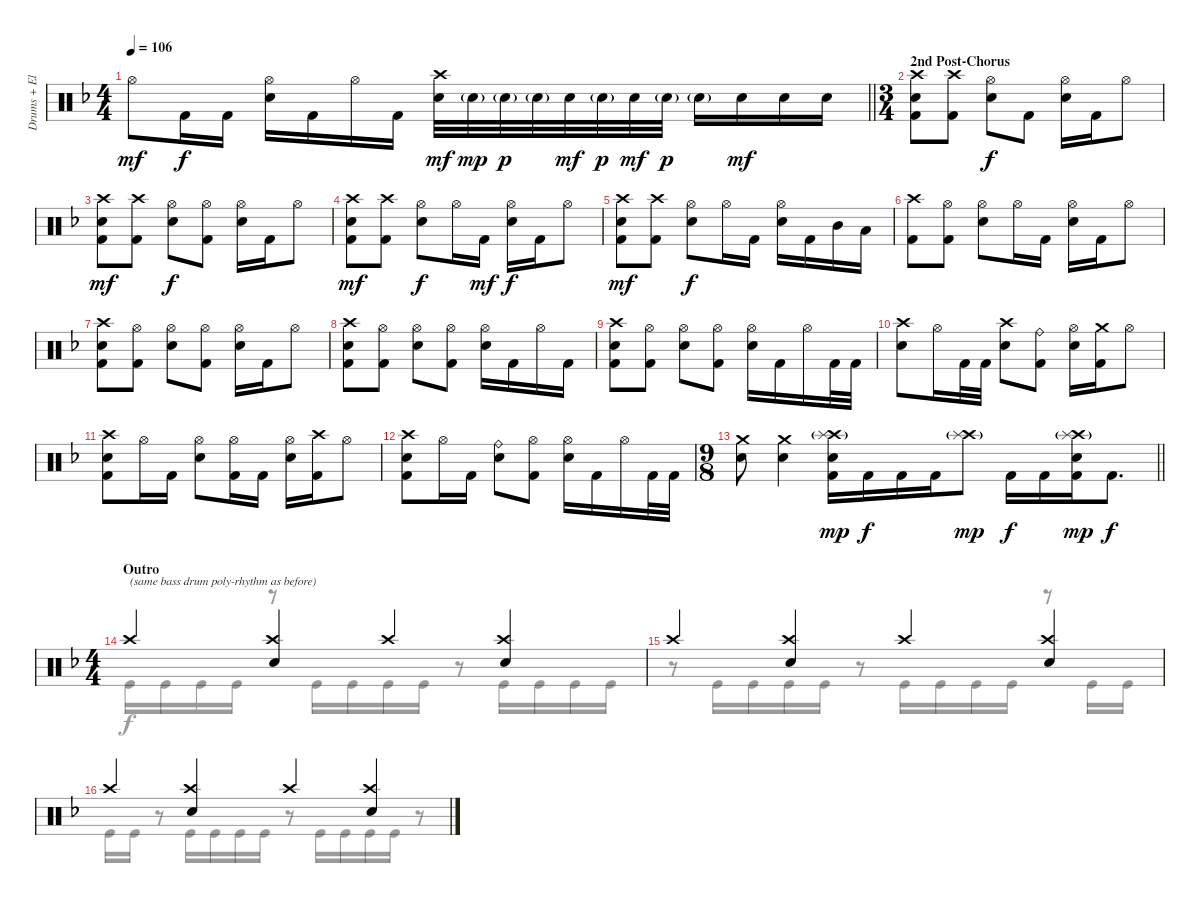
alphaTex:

\track ("Drums + Electronic drum pads" "Drums + El") {instrument percussion}
\staff {score}
\articulation defaults
\voice
\ts (4 4)
\tempo 106
\clef neutral
\barLineRight lightlight
\ks dminor "Hi-Hat (open)".8{dy mf} "Kick (hit) 2".16{dy f} "Kick (hit) 2".16
("Hi-Hat (open)" "Snare (hit) 2").16 "Kick (hit) 2".16 "Hi-Hat (open)".16 "Kick (hit) 2".16 ("Crash high (hit)" "Snare (hit) 2").32{dy mf} "Snare (hit) 2"{g}.32{dy mp} "Snare (hit) 2"{g}.32{dy p} "Snare (hit) 2"{g}.32 "Snare (hit) 2".32{dy mf} "Snare (hit) 2"{g}.32{dy p} "Snare (hit) 2".32{dy mf} "Snare (hit) 2"{g}.32{dy p} "Snare (hit) 2"{g}.16 "Snare (hit) 2".16{dy mf} "Snare (hit) 2".16 "Snare (hit) 2".16 |
\ts (3 4)
\section ("" "2nd Post-Chorus")
("Crash high (hit)" "Snare (hit) 2" "Kick (hit) 2").8 ("Crash high (hit)" "Kick (hit) 2").8 ("Hi-Hat (open)" "Snare (hit) 2").8{dy f} "Kick (hit) 2".8 ("Hi-Hat (open)" "Snare (hit) 2").16 "Kick (hit) 2".16 "Hi-Hat (open)".8 |
("Crash high (hit)" "Snare (hit) 2" "Kick (hit) 2").8{dy mf} ("Crash high (hit)" "Kick (hit) 2").8 ("Hi-Hat (open)" "Snare (hit) 2").8{dy f} ("Hi-Hat (open)" "Kick (hit) 2").8 ("Hi-Hat (open)" "Snare (hit) 2").16 "Kick (hit) 2".16 "Hi-Hat (open)".8 |
("Crash high (hit)" "Snare (hit) 2" "Kick (hit) 2").8{dy mf} ("Crash high (hit)" "Kick (hit) 2").8 ("Hi-Hat (open)" "Snare (hit) 2").8{dy f} "Hi-Hat (open)".16 "Kick (hit) 2".16{dy mf} ("Hi-Hat (open)" "Snare (hit) 2").16{dy f} "Kick (hit) 2".16 "Hi-Hat (open)".8 |
("Crash high (hit)" "Snare (hit) 2" "Kick (hit) 2").8{dy mf} ("Crash high (hit)" "Kick (hit) 2").8 ("Hi-Hat (open)" "Snare (hit) 2").8{dy f} "Hi-Hat (open)".16 "Kick (hit) 2".16 ("Hi-Hat (open)" "Snare (hit) 2").16 "Kick (hit) 2".16 "Mid Tom (hit)".16 "Low Tom (hit)".16 |
("Crash high (hit)" "Kick (hit) 2").8 ("Hi-Hat (open)" "Kick (hit) 2").8 ("Hi-Hat (open)" "Snare (hit) 2").8 "Hi-Hat (open)".16 "Kick (hit) 2".16 ("Hi-Hat (open)" "Snare (hit) 2").16 "Kick (hit) 2".16 "Hi-Hat (open)".8 |
("Crash high (hit)" "Snare (hit) 2" "Kick (hit) 2").8 ("Hi-Hat (open)" "Kick (hit) 2").8 ("Hi-Hat (open)" "Snare (hit) 2").8 ("Hi-Hat (open)" "Kick (hit) 2").8 ("Hi-Hat (open)" "Snare (hit) 2").16 "Kick (hit) 2".16 "Hi-Hat (open)".8 |
("Crash high (hit)" "Snare (hit) 2" "Kick (hit) 2").8 ("Hi-Hat (open)" "Kick (hit) 2").8 ("Hi-Hat (open)" "Snare (hit) 2").8 ("Hi-Hat (open)" "Kick (hit) 2").8 ("Hi-Hat (open)" "Snare (hit) 2").16 "Kick (hit) 2".16 "Hi-Hat (open)".16 "Kick (hit) 2".16 |
("Crash high (hit)" "Snare (hit) 2" "Kick (hit) 2").8 ("Hi-Hat (open)" "Kick (hit) 2").8 ("Hi-Hat (open)" "Snare (hit) 2").8 ("Hi-Hat (open)" "Kick (hit) 2").8 ("Hi-Hat (open)" "Snare (hit) 2").16 "Kick (hit) 2".16 "Hi-Hat (open)".16 "Kick (hit) 2".32 "Kick (hit) 2".32 |
("Crash high (hit)" "Snare (hit) 2").8 "Hi-Hat (open)".16 "Kick (hit) 2".32 "Kick (hit) 2".32 ("Crash high (hit)" "Snare (hit) 2").8 ("Ride (bell)" "Kick (hit) 2").8 ("Hi-Hat (open)" "Snare (hit) 2").16 ("Crash medium (hit)" "Kick (hit) 2").16 "Hi-Hat (open)".8 |
("Crash high (hit)" "Snare (hit) 2" "Kick (hit) 2").8 "Hi-Hat (open)".16 "Kick (hit) 2".16 ("Hi-Hat (open)" "Snare (hit) 2").8 ("Hi-Hat (open)" "Kick (hit) 2").16 "Kick (hit) 2".16 ("Hi-Hat (open)" "Snare (hit) 2").16 ("Crash high (hit)" "Kick (hit) 2").16 "Hi-Hat (open)".8 |
("Crash high (hit)" "Snare (hit) 2" "Kick (hit) 2").8 "Hi-Hat (open)".16 "Kick (hit) 2".16 ("Ride (bell)" "Snare (hit) 2").8 ("Hi-Hat (open)" "Kick (hit) 2").8 ("Hi-Hat (open)" "Snare (hit) 2").16 "Kick (hit) 2".16 "Hi-Hat (open)".16 "Kick (hit) 2".32 "Kick (hit) 2".32 |
\ts (9 8)
\barLineRight lightlight
("Crash medium (hit)" "Snare (hit) 2").8 ("Crash medium (hit)" "Snare (hit) 2").4 ("Crash high (hit)"{g} "Splash (hit)" "Snare (hit) 2" "Kick (hit) 2").16{dy mp} "Kick (hit) 2".16{dy f} "Kick (hit) 2".16 "Kick (hit) 2".16 ("Crash high (hit)"{g} "Splash (hit)").8{dy mp} "Kick (hit) 2".16{dy f} "Kick (hit) 2".16 ("Crash high (hit)"{g} "Splash (hit)" "Snare (hit) 2" "Kick (hit) 2").16{dy mp} "Kick (hit) 2".8{d dy f} |
\ts (4 4)
\section ("" "Outro")
"Crash high (hit)".4{txt "(same bass drum poly-rhythm as before)"} ("Crash high (hit)" "Snare (hit) 2").4 "Crash high (hit)".4 ("Crash high (hit)" "Snare (hit) 2").4 |
"Crash high (hit)".4 ("Crash high (hit)" "Snare (hit) 2").4 "Crash high (hit)".4 ("Crash high (hit)" "Snare (hit) 2").4 |
"Crash high (hit)".4 ("Crash high (hit)" "Snare (hit) 2").4 "Crash high (hit)".4 ("Crash high (hit)" "Snare (hit) 2").4
\voice
\clef neutral
\ottava regular
\simile none
\barLineRight lightlight
\ks dminor
|
|
|
|
|
|
|
|
|
|
|
|
\barLineRight lightlight
|
"Kick (hit)".16 "Kick (hit)".16 "Kick (hit)".16 "Kick (hit)".16 r.8 "Kick (hit)".16 "Kick (hit)".16{beam merge} "Kick (hit)".16 "Kick (hit)".16 r.8{beam split} "Kick (hit)".16 "Kick (hit)".16{beam merge} "Kick (hit)".16 "Kick (hit)".16 |
r.8 "Kick (hit)".16 "Kick (hit)".16{beam merge} "Kick (hit)".16 "Kick (hit)".16 r.8 "Kick (hit)".16 "Kick (hit)".16 "Kick (hit)".16 "Kick (hit)".16 r.8 "Kick (hit)".16 "Kick (hit)".16 |
"Kick (hit)".16 "Kick (hit)".16 r.8 "Kick (hit)".16 "Kick (hit)".16 "Kick (hit)".16 "Kick (hit)".16 r.8 "Kick (hit)".16 "Kick (hit)".16{beam merge} "Kick (hit)".16 "Kick (hit)".16 r.8
